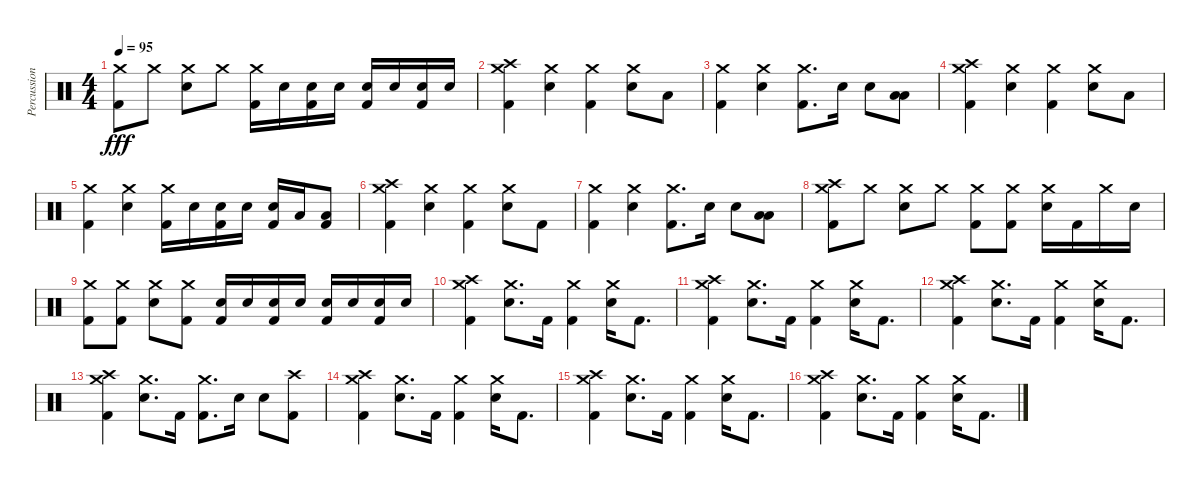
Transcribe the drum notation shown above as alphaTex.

\track ("Percussion" "Percussion") {instrument percussion}
\staff {score}
\articulation defaults
\ts (4 4)
\tempo 95
\clef neutral
\ks c
("Crash medium (hit)" "Kick (hit) 2").8{dy fff} "Crash medium (hit)".8 ("Crash medium (hit)" "Electric Snare (hit)").8 "Crash medium (hit)".8 ("Crash medium (hit)" "Kick (hit) 2").16 "Electric Snare (hit)".16 ("Kick (hit) 2" "Electric Snare (hit)").16 "Electric Snare (hit)".16 ("Kick (hit) 2" "Electric Snare (hit)").16 "Electric Snare (hit)".16 ("Kick (hit) 2" "Electric Snare (hit)").16 "Electric Snare (hit)".16 |
("Crash high (hit)" "Crash medium (hit)" "Kick (hit) 2").4 ("Crash medium (hit)" "Electric Snare (hit)").4 ("Crash medium (hit)" "Kick (hit) 2").4 ("Crash medium (hit)" "Electric Snare (hit)").8 "Low Tom (hit)".8 |
("Crash medium (hit)" "Kick (hit) 2").4 ("Crash medium (hit)" "Electric Snare (hit)").4 ("Crash medium (hit)" "Kick (hit) 2").8{d} "Electric Snare (hit)".16 "Electric Snare (hit)".8 ("Low Tom (hit)" "Low Floor Tom (hit)").8 |
("Crash high (hit)" "Crash medium (hit)" "Kick (hit) 2").4 ("Crash medium (hit)" "Electric Snare (hit)").4 ("Crash medium (hit)" "Kick (hit) 2").4 ("Crash medium (hit)" "Electric Snare (hit)").8 "Low Tom (hit)".8 |
("Crash medium (hit)" "Kick (hit) 2").4 ("Crash medium (hit)" "Electric Snare (hit)").4 ("Crash medium (hit)" "Kick (hit) 2").16 "Electric Snare (hit)".16 ("Kick (hit) 2" "Electric Snare (hit)").16 "Electric Snare (hit)".16 ("Kick (hit) 2" "Electric Snare (hit)").16 "Low Tom (hit)".16 ("Kick (hit) 2" "Low Floor Tom (hit)").8 |
("Crash high (hit)" "Crash medium (hit)" "Kick (hit) 2").4 ("Crash medium (hit)" "Electric Snare (hit)").4 ("Crash medium (hit)" "Kick (hit) 2").4 ("Crash medium (hit)" "Electric Snare (hit)").8 "Kick (hit) 2".8 |
("Crash medium (hit)" "Kick (hit) 2").4 ("Crash medium (hit)" "Electric Snare (hit)").4 ("Crash medium (hit)" "Kick (hit) 2").8{d} "Electric Snare (hit)".16 "Electric Snare (hit)".8 ("Low Tom (hit)" "Low Floor Tom (hit)").8 |
("Crash high (hit)" "Crash medium (hit)" "Kick (hit) 2").8 "Crash medium (hit)".8 ("Crash medium (hit)" "Electric Snare (hit)").8 "Crash medium (hit)".8 ("Crash medium (hit)" "Kick (hit) 2").8 ("Crash medium (hit)" "Kick (hit) 2").8 ("Crash medium (hit)" "Electric Snare (hit)").16 "Kick (hit) 2".16 "Crash medium (hit)".16 "Electric Snare (hit)".16 |
("Crash medium (hit)" "Kick (hit) 2").8 ("Crash medium (hit)" "Kick (hit) 2").8 ("Crash medium (hit)" "Electric Snare (hit)").8 ("Crash medium (hit)" "Kick (hit) 2").8 ("Kick (hit) 2" "Electric Snare (hit)").16 "Electric Snare (hit)".16 ("Kick (hit) 2" "Electric Snare (hit)").16 "Electric Snare (hit)".16 ("Kick (hit) 2" "Electric Snare (hit)").16 "Electric Snare (hit)".16 ("Kick (hit) 2" "Electric Snare (hit)").16 "Electric Snare (hit)".16 |
("Crash high (hit)" "Crash medium (hit)" "Kick (hit) 2").4 ("Crash medium (hit)" "Electric Snare (hit)").8{d} "Kick (hit) 2".16 ("Crash medium (hit)" "Kick (hit) 2").4 ("Crash medium (hit)" "Electric Snare (hit)").16 "Kick (hit) 2".8{d} |
("Crash high (hit)" "Crash medium (hit)" "Kick (hit) 2").4 ("Crash medium (hit)" "Electric Snare (hit)").8{d} "Kick (hit) 2".16 ("Crash medium (hit)" "Kick (hit) 2").4 ("Crash medium (hit)" "Electric Snare (hit)").16 "Kick (hit) 2".8{d} |
("Crash high (hit)" "Crash medium (hit)" "Kick (hit) 2").4 ("Crash medium (hit)" "Electric Snare (hit)").8{d} "Kick (hit) 2".16 ("Crash medium (hit)" "Kick (hit) 2").4 ("Crash medium (hit)" "Electric Snare (hit)").16 "Kick (hit) 2".8{d} |
("Crash high (hit)" "Crash medium (hit)" "Kick (hit) 2").4 ("Crash medium (hit)" "Electric Snare (hit)").8{d} "Kick (hit) 2".16 ("Crash medium (hit)" "Kick (hit) 2").8{d} "Electric Snare (hit)".16 "Electric Snare (hit)".8 ("Crash high (hit)" "Kick (hit) 2").8 |
("Crash high (hit)" "Crash medium (hit)" "Kick (hit) 2").4 ("Crash medium (hit)" "Electric Snare (hit)").8{d} "Kick (hit) 2".16 ("Crash medium (hit)" "Kick (hit) 2").4 ("Crash medium (hit)" "Electric Snare (hit)").16 "Kick (hit) 2".8{d} |
("Crash high (hit)" "Crash medium (hit)" "Kick (hit) 2").4 ("Crash medium (hit)" "Electric Snare (hit)").8{d} "Kick (hit) 2".16 ("Crash medium (hit)" "Kick (hit) 2").4 ("Crash medium (hit)" "Electric Snare (hit)").16 "Kick (hit) 2".8{d} |
("Crash high (hit)" "Crash medium (hit)" "Kick (hit) 2").4 ("Crash medium (hit)" "Electric Snare (hit)").8{d} "Kick (hit) 2".16 ("Crash medium (hit)" "Kick (hit) 2").4 ("Crash medium (hit)" "Electric Snare (hit)").16 "Kick (hit) 2".8{d}
